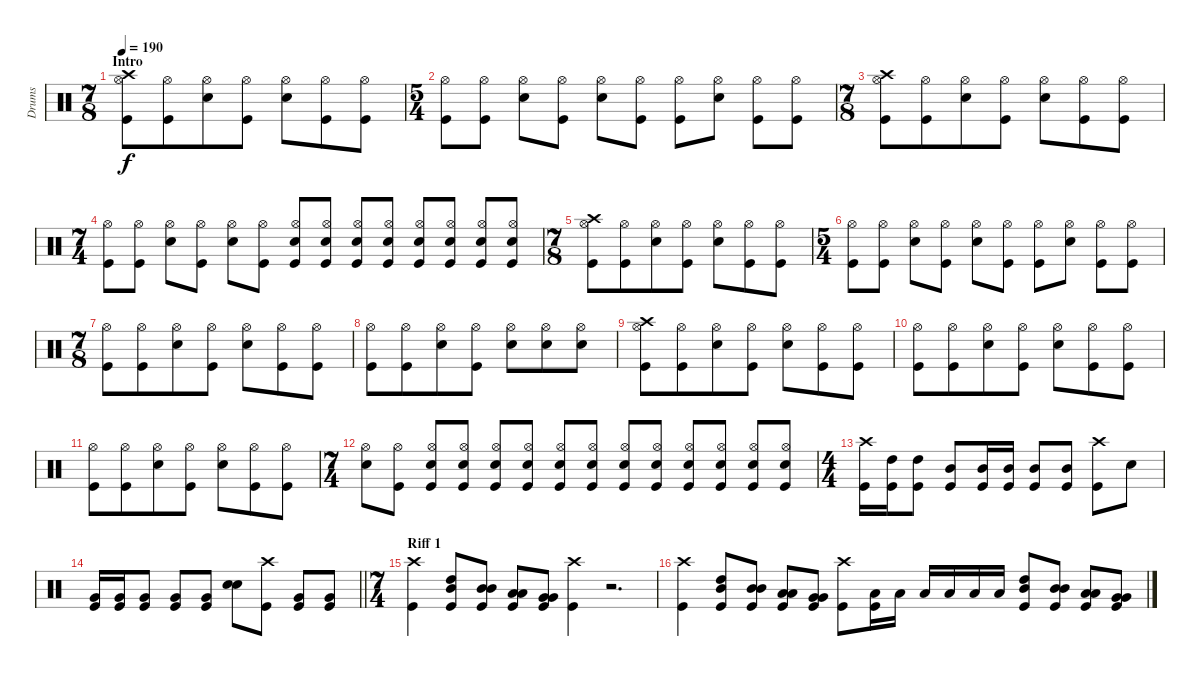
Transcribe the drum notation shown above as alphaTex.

\track ("Drums" "Drums") {instrument percussion}
\staff {score}
\articulation defaults
\ts (7 8)
\section ("" "Intro")
\tempo 190
\tempo 200
\tempo 190
\clef neutral
\ks c
("Kick (hit)" "Hi-Hat (open)" "Crash high (hit)").8{dy f} ("Kick (hit)" "Hi-Hat (open)").8 ("Snare (hit) 2" "Hi-Hat (open)").8 ("Kick (hit)" "Hi-Hat (open)").8 ("Snare (hit) 2" "Hi-Hat (open)").8 ("Kick (hit)" "Hi-Hat (open)").8 ("Kick (hit)" "Hi-Hat (open)").8 |
\ts (5 4)
("Kick (hit)" "Hi-Hat (open)").8 ("Kick (hit)" "Hi-Hat (open)").8 ("Snare (hit) 2" "Hi-Hat (open)").8 ("Kick (hit)" "Hi-Hat (open)").8 ("Snare (hit) 2" "Hi-Hat (open)").8 ("Kick (hit)" "Hi-Hat (open)").8 ("Kick (hit)" "Hi-Hat (open)").8 ("Snare (hit) 2" "Hi-Hat (open)").8 ("Kick (hit)" "Hi-Hat (open)").8 ("Kick (hit)" "Hi-Hat (open)").8 |
\ts (7 8)
("Kick (hit)" "Hi-Hat (open)" "Crash high (hit)").8 ("Kick (hit)" "Hi-Hat (open)").8 ("Snare (hit) 2" "Hi-Hat (open)").8 ("Kick (hit)" "Hi-Hat (open)").8 ("Snare (hit) 2" "Hi-Hat (open)").8 ("Kick (hit)" "Hi-Hat (open)").8 ("Kick (hit)" "Hi-Hat (open)").8 |
\ts (7 4)
("Kick (hit)" "Hi-Hat (open)").8 ("Kick (hit)" "Hi-Hat (open)").8 ("Snare (hit) 2" "Hi-Hat (open)").8 ("Kick (hit)" "Hi-Hat (open)").8 ("Snare (hit) 2" "Hi-Hat (open)").8 ("Kick (hit)" "Hi-Hat (open)").8 ("Kick (hit)" "Hi-Hat (open)" "Snare (hit) 2").8 ("Kick (hit)" "Hi-Hat (open)" "Snare (hit) 2").8 ("Kick (hit)" "Snare (hit) 2" "Hi-Hat (open)").8 ("Kick (hit)" "Hi-Hat (open)" "Snare (hit) 2").8 ("Kick (hit)" "Snare (hit) 2" "Hi-Hat (open)").8 ("Kick (hit)" "Hi-Hat (open)" "Snare (hit) 2").8 ("Kick (hit)" "Snare (hit) 2" "Hi-Hat (open)").8 ("Kick (hit)" "Hi-Hat (open)" "Snare (hit) 2").8 |
\ts (7 8)
("Kick (hit)" "Hi-Hat (open)" "Crash high (hit)").8 ("Kick (hit)" "Hi-Hat (open)").8 ("Snare (hit) 2" "Hi-Hat (open)").8 ("Kick (hit)" "Hi-Hat (open)").8 ("Snare (hit) 2" "Hi-Hat (open)").8 ("Kick (hit)" "Hi-Hat (open)").8 ("Kick (hit)" "Hi-Hat (open)").8 |
\ts (5 4)
("Kick (hit)" "Hi-Hat (open)").8 ("Kick (hit)" "Hi-Hat (open)").8 ("Snare (hit) 2" "Hi-Hat (open)").8 ("Kick (hit)" "Hi-Hat (open)").8 ("Snare (hit) 2" "Hi-Hat (open)").8 ("Kick (hit)" "Hi-Hat (open)").8 ("Kick (hit)" "Hi-Hat (open)").8 ("Snare (hit) 2" "Hi-Hat (open)").8 ("Kick (hit)" "Hi-Hat (open)").8 ("Kick (hit)" "Hi-Hat (open)").8 |
\ts (7 8)
("Kick (hit)" "Hi-Hat (open)").8 ("Kick (hit)" "Hi-Hat (open)").8 ("Snare (hit) 2" "Hi-Hat (open)").8 ("Kick (hit)" "Hi-Hat (open)").8 ("Snare (hit) 2" "Hi-Hat (open)").8 ("Kick (hit)" "Hi-Hat (open)").8 ("Kick (hit)" "Hi-Hat (open)").8 |
("Kick (hit)" "Hi-Hat (open)").8 ("Kick (hit)" "Hi-Hat (open)").8 ("Hi-Hat (open)" "Snare (hit) 2").8 ("Kick (hit)" "Hi-Hat (open)").8 ("Hi-Hat (open)" "Snare (hit) 2").8 ("Hi-Hat (open)" "Snare (hit) 2").8 ("Hi-Hat (open)" "Snare (hit) 2").8 |
("Kick (hit)" "Hi-Hat (open)" "Crash high (hit)").8 ("Kick (hit)" "Hi-Hat (open)").8 ("Hi-Hat (open)" "Snare (hit) 2").8 ("Kick (hit)" "Hi-Hat (open)").8 ("Hi-Hat (open)" "Snare (hit) 2").8 ("Kick (hit)" "Hi-Hat (open)").8 ("Kick (hit)" "Hi-Hat (open)").8 |
("Kick (hit)" "Hi-Hat (open)").8 ("Kick (hit)" "Hi-Hat (open)").8 ("Hi-Hat (open)" "Snare (hit) 2").8 ("Kick (hit)" "Hi-Hat (open)").8 ("Hi-Hat (open)" "Snare (hit) 2").8 ("Kick (hit)" "Hi-Hat (open)").8 ("Kick (hit)" "Hi-Hat (open)").8 |
("Kick (hit)" "Hi-Hat (open)").8 ("Kick (hit)" "Hi-Hat (open)").8 ("Hi-Hat (open)" "Snare (hit) 2").8 ("Kick (hit)" "Hi-Hat (open)").8 ("Hi-Hat (open)" "Snare (hit) 2").8 ("Kick (hit)" "Hi-Hat (open)").8 ("Kick (hit)" "Hi-Hat (open)").8 |
\ts (7 4)
("Hi-Hat (open)" "Snare (hit) 2").8 ("Kick (hit)" "Hi-Hat (open)").8 ("Kick (hit)" "Snare (hit) 2" "Hi-Hat (open)").8 ("Kick (hit)" "Hi-Hat (open)" "Snare (hit) 2").8 ("Kick (hit)" "Hi-Hat (open)" "Snare (hit) 2").8 ("Kick (hit)" "Hi-Hat (open)" "Snare (hit) 2").8 ("Kick (hit)" "Snare (hit) 2" "Hi-Hat (open)").8 ("Kick (hit)" "Hi-Hat (open)" "Snare (hit) 2").8 ("Kick (hit)" "Hi-Hat (open)" "Snare (hit) 2").8 ("Kick (hit)" "Hi-Hat (open)" "Snare (hit) 2").8 ("Kick (hit)" "Snare (hit) 2" "Hi-Hat (open)").8 ("Kick (hit)" "Hi-Hat (open)" "Snare (hit) 2").8 ("Kick (hit)" "Snare (hit) 2" "Hi-Hat (open)").8 ("Kick (hit)" "Hi-Hat (open)" "Snare (hit) 2").8 |
\ts (4 4)
("Kick (hit)" "Crash high (hit)").16 ("Kick (hit)" "High Tom (hit)").16 ("Kick (hit)" "High Tom (hit)").8 ("Kick (hit)" "Mid Tom (hit)").8 ("Kick (hit)" "Mid Tom (hit)").16 ("Kick (hit)" "Mid Tom (hit)").16 ("Kick (hit)" "Mid Tom (hit)").8 ("Kick (hit)" "Mid Tom (hit)").8 ("Kick (hit)" "Crash high (hit)").8 "Snare (hit) 2".8 |
\barLineRight lightlight
("Kick (hit)" "Very Low Tom (hit)").16 ("Kick (hit)" "Very Low Tom (hit)").16 ("Kick (hit)" "Very Low Tom (hit)").8 ("Kick (hit)" "Very Low Tom (hit)").8 ("Kick (hit)" "Very Low Tom (hit)").8 ("Snare (hit) 2" "Snare (hit) 2").8 ("Kick (hit)" "Crash high (hit)").8 ("Kick (hit)" "Very Low Tom (hit)").8 ("Kick (hit)" "Very Low Tom (hit)").8 |
\ts (7 4)
\section ("" "Riff 1")
("Crash high (hit)" "Kick (hit)").4 ("Mid Tom (hit)" "Kick (hit)" "High Tom (hit)").8 ("Kick (hit)" "Mid Tom (hit)" "Mid Tom (hit)").8 ("Kick (hit)" "Low Tom (hit)" "Low Tom (hit)").8 ("Kick (hit)" "Very Low Tom (hit)" "Very Low Tom (hit)").8 ("Crash high (hit)" "Kick (hit)").4 r.2{d} |
("Crash high (hit)" "Kick (hit)").4 ("Mid Tom (hit)" "Kick (hit)" "High Tom (hit)").8 ("Kick (hit)" "Mid Tom (hit)" "Mid Tom (hit)").8 ("Kick (hit)" "Low Tom (hit)" "Low Tom (hit)").8 ("Kick (hit)" "Very Low Tom (hit)" "Very Low Tom (hit)").8 ("Kick (hit)" "Crash high (hit)").8 ("Kick (hit)" "Low Tom (hit)").16 "Low Tom (hit)".16 "Low Tom (hit)".16 "Low Tom (hit)".16 "Low Tom (hit)".16 "Low Tom (hit)".16 ("Mid Tom (hit)" "Kick (hit)" "High Tom (hit)").8 ("Kick (hit)" "Mid Tom (hit)" "Mid Tom (hit)").8 ("Kick (hit)" "Low Tom (hit)" "Low Tom (hit)").8 ("Kick (hit)" "Very Low Tom (hit)" "Very Low Tom (hit)").8
